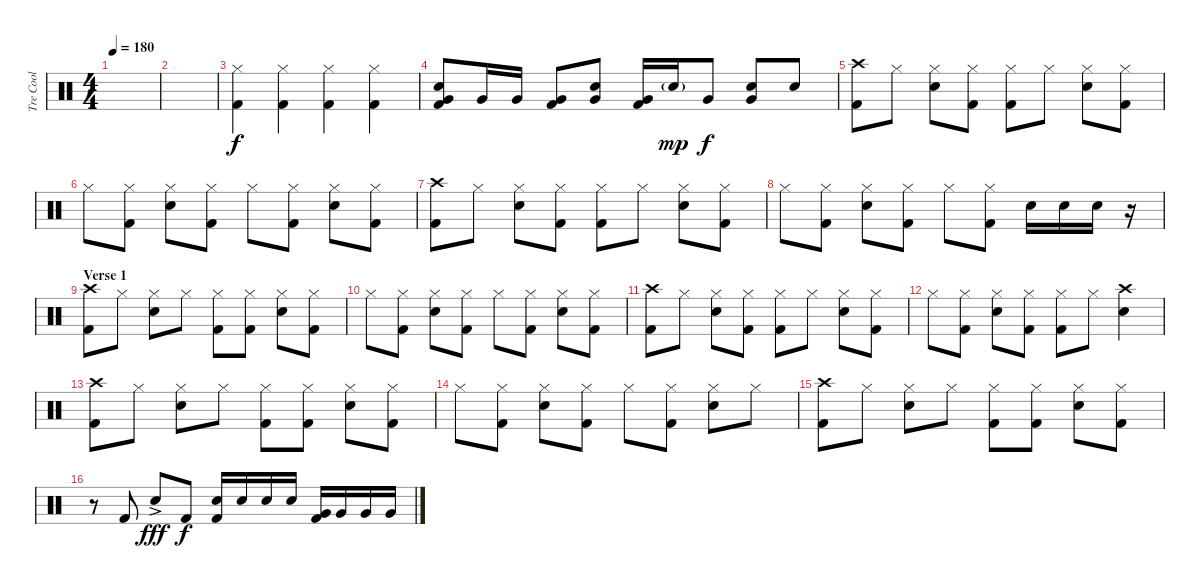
\track ("Tre Cool" "Tre Cool") {instrument percussion}
\staff {score}
\articulation defaults
\ts (4 4)
\tempo 180
\clef neutral
\ks c
|
|
("Hi-Hat (closed)" "Kick (hit) 2").4 ("Hi-Hat (closed)" "Kick (hit) 2").4 ("Hi-Hat (closed)" "Kick (hit) 2").4 ("Hi-Hat (closed)" "Kick (hit) 2").4 |
("Very Low Tom (hit)" "Electric Snare (hit)" "Kick (hit) 2").8 "Very Low Tom (hit)".16 "Very Low Tom (hit)".16 ("Very Low Tom (hit)" "Kick (hit) 2").8 ("Electric Snare (hit)" "Very Low Tom (hit)").8 ("Very Low Tom (hit)" "Kick (hit) 2").16 "Electric Snare (hit)"{g}.16{dy mp} "Very Low Tom (hit)".8{dy f} ("Electric Snare (hit)" "Very Low Tom (hit)").8 "Electric Snare (hit)".8 |
("Crash high (hit)" "Kick (hit) 2").8 "Hi-Hat (closed)".8 ("Hi-Hat (closed)" "Electric Snare (hit)").8 ("Hi-Hat (closed)" "Kick (hit) 2").8 ("Hi-Hat (closed)" "Kick (hit) 2").8 "Hi-Hat (closed)".8 ("Hi-Hat (closed)" "Electric Snare (hit)").8 ("Hi-Hat (closed)" "Kick (hit) 2").8 |
"Hi-Hat (closed)".8 ("Hi-Hat (closed)" "Kick (hit) 2").8 ("Hi-Hat (closed)" "Electric Snare (hit)").8 ("Hi-Hat (closed)" "Kick (hit) 2").8 "Hi-Hat (closed)".8 ("Hi-Hat (closed)" "Kick (hit) 2").8 ("Hi-Hat (closed)" "Electric Snare (hit)").8 ("Hi-Hat (closed)" "Kick (hit) 2").8 |
("Crash high (hit)" "Kick (hit) 2").8 "Hi-Hat (closed)".8 ("Hi-Hat (closed)" "Electric Snare (hit)").8 ("Hi-Hat (closed)" "Kick (hit) 2").8 ("Hi-Hat (closed)" "Kick (hit) 2").8 "Hi-Hat (closed)".8 ("Hi-Hat (closed)" "Electric Snare (hit)").8 ("Hi-Hat (closed)" "Kick (hit) 2").8 |
"Hi-Hat (closed)".8 ("Hi-Hat (closed)" "Kick (hit) 2").8 ("Hi-Hat (closed)" "Electric Snare (hit)").8 ("Hi-Hat (closed)" "Kick (hit) 2").8 "Hi-Hat (closed)".8 ("Hi-Hat (closed)" "Kick (hit) 2").8 "Electric Snare (hit)".16 "Electric Snare (hit)".16 "Electric Snare (hit)".16 r.16 |
\section ("" "Verse 1")
("Crash high (hit)" "Kick (hit) 2").8 "Hi-Hat (closed)".8 ("Hi-Hat (closed)" "Electric Snare (hit)").8 "Hi-Hat (closed)".8 ("Hi-Hat (closed)" "Kick (hit) 2").8 ("Hi-Hat (closed)" "Kick (hit) 2").8 ("Hi-Hat (closed)" "Electric Snare (hit)").8 ("Hi-Hat (closed)" "Kick (hit) 2").8 |
"Hi-Hat (closed)".8 ("Hi-Hat (closed)" "Kick (hit) 2").8 ("Hi-Hat (closed)" "Electric Snare (hit)").8 ("Hi-Hat (closed)" "Kick (hit) 2").8 "Hi-Hat (closed)".8 ("Hi-Hat (closed)" "Kick (hit) 2").8 ("Hi-Hat (closed)" "Electric Snare (hit)").8 ("Hi-Hat (closed)" "Kick (hit) 2").8 |
("Crash high (hit)" "Kick (hit) 2").8 "Hi-Hat (closed)".8 ("Hi-Hat (closed)" "Electric Snare (hit)").8 ("Hi-Hat (closed)" "Kick (hit) 2").8 ("Hi-Hat (closed)" "Kick (hit) 2").8 "Hi-Hat (closed)".8 ("Hi-Hat (closed)" "Electric Snare (hit)").8 ("Hi-Hat (closed)" "Kick (hit) 2").8 |
"Hi-Hat (closed)".8 ("Hi-Hat (closed)" "Kick (hit) 2").8 ("Hi-Hat (closed)" "Electric Snare (hit)").8 ("Hi-Hat (closed)" "Kick (hit) 2").8 ("Hi-Hat (closed)" "Kick (hit) 2").8 "Hi-Hat (closed)".8 ("Crash high (hit)" "Electric Snare (hit)").4 |
("Crash high (hit)" "Kick (hit) 2").8 "Hi-Hat (closed)".8 ("Hi-Hat (closed)" "Electric Snare (hit)").8 "Hi-Hat (closed)".8 ("Hi-Hat (closed)" "Kick (hit) 2").8 ("Hi-Hat (closed)" "Kick (hit) 2").8 ("Hi-Hat (closed)" "Electric Snare (hit)").8 ("Hi-Hat (closed)" "Kick (hit) 2").8 |
"Hi-Hat (closed)".8 ("Hi-Hat (closed)" "Kick (hit) 2").8 ("Hi-Hat (closed)" "Electric Snare (hit)").8 ("Hi-Hat (closed)" "Kick (hit) 2").8 "Hi-Hat (closed)".8 ("Hi-Hat (closed)" "Kick (hit) 2").8 ("Hi-Hat (closed)" "Electric Snare (hit)").8 "Hi-Hat (closed)".8 |
("Crash high (hit)" "Kick (hit) 2").8 "Hi-Hat (closed)".8 ("Hi-Hat (closed)" "Electric Snare (hit)").8 "Hi-Hat (closed)".8 ("Hi-Hat (closed)" "Kick (hit) 2").8 ("Hi-Hat (closed)" "Kick (hit) 2").8 ("Hi-Hat (closed)" "Electric Snare (hit)").8 ("Hi-Hat (closed)" "Kick (hit) 2").8 |
r.8 "Kick (hit) 2".8 "Electric Snare (hit)"{ac}.8{dy fff} "Kick (hit) 2".8{dy f} ("Electric Snare (hit)" "Kick (hit) 2").16 "Electric Snare (hit)".16 "Electric Snare (hit)".16 "Electric Snare (hit)".16 ("Very Low Tom (hit)" "Kick (hit) 2").16 "Very Low Tom (hit)".16 "Very Low Tom (hit)".16 "Very Low Tom (hit)".16
